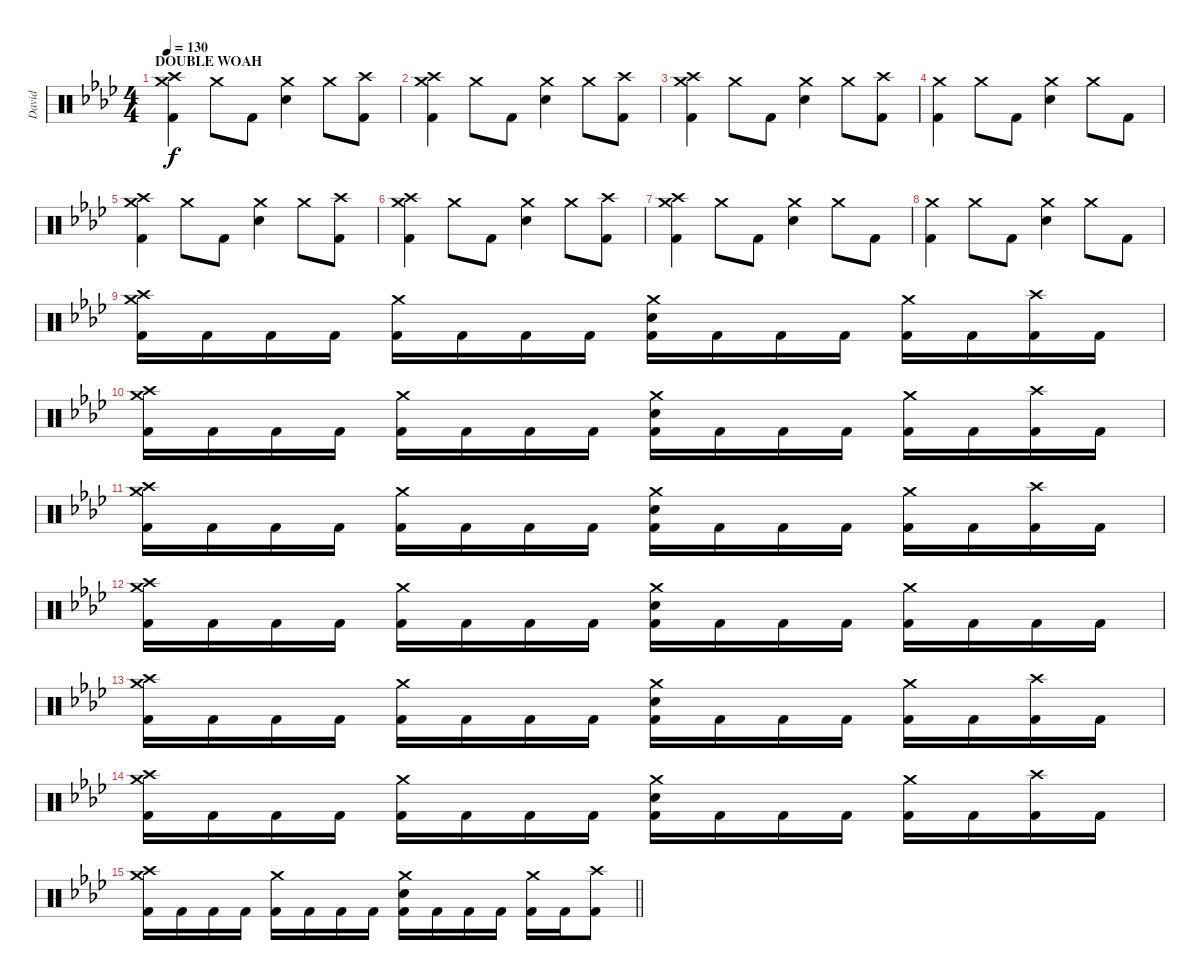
\track ("David" "David") {instrument percussion}
\staff {score}
\articulation defaults
\ts (4 4)
\section ("" "DOUBLE WOAH")
\tempo 130
\clef neutral
\ks ab
("Crash medium (hit)" "Crash high (hit)" "Kick (hit) 2").4{dy f} "Crash medium (hit)".8 "Kick (hit) 2".8 ("Crash medium (hit)" "Electric Snare (hit)").4 "Crash medium (hit)".8 ("Crash high (hit)" "Kick (hit) 2").8 |
("Crash medium (hit)" "Crash high (hit)" "Kick (hit) 2").4 "Crash medium (hit)".8 "Kick (hit) 2".8 ("Crash medium (hit)" "Electric Snare (hit)").4 "Crash medium (hit)".8 ("Crash high (hit)" "Kick (hit) 2").8 |
("Crash medium (hit)" "Crash high (hit)" "Kick (hit) 2").4 "Crash medium (hit)".8 "Kick (hit) 2".8 ("Crash medium (hit)" "Electric Snare (hit)").4 "Crash medium (hit)".8 ("Crash high (hit)" "Kick (hit) 2").8 |
("Crash medium (hit)" "Kick (hit) 2").4 "Crash medium (hit)".8 "Kick (hit) 2".8 ("Crash medium (hit)" "Electric Snare (hit)").4 "Crash medium (hit)".8 "Kick (hit) 2".8 |
("Crash medium (hit)" "Crash high (hit)" "Kick (hit) 2").4 "Crash medium (hit)".8 "Kick (hit) 2".8 ("Crash medium (hit)" "Electric Snare (hit)").4 "Crash medium (hit)".8 ("Crash high (hit)" "Kick (hit) 2").8 |
("Crash medium (hit)" "Crash high (hit)" "Kick (hit) 2").4 "Crash medium (hit)".8 "Kick (hit) 2".8 ("Crash medium (hit)" "Electric Snare (hit)").4 "Crash medium (hit)".8 ("Crash high (hit)" "Kick (hit) 2").8 |
("Crash medium (hit)" "Crash high (hit)" "Kick (hit) 2").4 "Crash medium (hit)".8 "Kick (hit) 2".8 ("Crash medium (hit)" "Electric Snare (hit)").4 "Crash medium (hit)".8 "Kick (hit) 2".8 |
("Crash medium (hit)" "Kick (hit) 2").4 "Crash medium (hit)".8 "Kick (hit) 2".8 ("Crash medium (hit)" "Electric Snare (hit)").4 "Crash medium (hit)".8 "Kick (hit) 2".8 |
("Crash medium (hit)" "Crash high (hit)" "Kick (hit) 2").16 "Kick (hit) 2".16 "Kick (hit) 2".16 "Kick (hit) 2".16 ("Crash medium (hit)" "Kick (hit) 2").16 "Kick (hit) 2".16 "Kick (hit) 2".16 "Kick (hit) 2".16 ("Crash medium (hit)" "Electric Snare (hit)" "Kick (hit) 2").16 "Kick (hit) 2".16 "Kick (hit) 2".16 "Kick (hit) 2".16 ("Crash medium (hit)" "Kick (hit) 2").16 "Kick (hit) 2".16 ("Crash high (hit)" "Kick (hit) 2").16 "Kick (hit) 2".16 |
("Crash medium (hit)" "Crash high (hit)" "Kick (hit) 2").16 "Kick (hit) 2".16 "Kick (hit) 2".16 "Kick (hit) 2".16 ("Crash medium (hit)" "Kick (hit) 2").16 "Kick (hit) 2".16 "Kick (hit) 2".16 "Kick (hit) 2".16 ("Crash medium (hit)" "Electric Snare (hit)" "Kick (hit) 2").16 "Kick (hit) 2".16 "Kick (hit) 2".16 "Kick (hit) 2".16 ("Crash medium (hit)" "Kick (hit) 2").16 "Kick (hit) 2".16 ("Crash high (hit)" "Kick (hit) 2").16 "Kick (hit) 2".16 |
("Crash medium (hit)" "Crash high (hit)" "Kick (hit) 2").16 "Kick (hit) 2".16 "Kick (hit) 2".16 "Kick (hit) 2".16 ("Crash medium (hit)" "Kick (hit) 2").16 "Kick (hit) 2".16 "Kick (hit) 2".16 "Kick (hit) 2".16 ("Crash medium (hit)" "Electric Snare (hit)" "Kick (hit) 2").16 "Kick (hit) 2".16 "Kick (hit) 2".16 "Kick (hit) 2".16 ("Crash medium (hit)" "Kick (hit) 2").16 "Kick (hit) 2".16 ("Crash high (hit)" "Kick (hit) 2").16 "Kick (hit) 2".16 |
("Crash medium (hit)" "Crash high (hit)" "Kick (hit) 2").16 "Kick (hit) 2".16 "Kick (hit) 2".16 "Kick (hit) 2".16 ("Crash medium (hit)" "Kick (hit) 2").16 "Kick (hit) 2".16 "Kick (hit) 2".16 "Kick (hit) 2".16 ("Crash medium (hit)" "Electric Snare (hit)" "Kick (hit) 2").16 "Kick (hit) 2".16 "Kick (hit) 2".16 "Kick (hit) 2".16 ("Crash medium (hit)" "Kick (hit) 2").16 "Kick (hit) 2".16 "Kick (hit) 2".16 "Kick (hit) 2".16 |
("Crash medium (hit)" "Crash high (hit)" "Kick (hit) 2").16 "Kick (hit) 2".16 "Kick (hit) 2".16 "Kick (hit) 2".16 ("Crash medium (hit)" "Kick (hit) 2").16 "Kick (hit) 2".16 "Kick (hit) 2".16 "Kick (hit) 2".16 ("Crash medium (hit)" "Electric Snare (hit)" "Kick (hit) 2").16 "Kick (hit) 2".16 "Kick (hit) 2".16 "Kick (hit) 2".16 ("Crash medium (hit)" "Kick (hit) 2").16 "Kick (hit) 2".16 ("Crash high (hit)" "Kick (hit) 2").16 "Kick (hit) 2".16 |
("Crash medium (hit)" "Crash high (hit)" "Kick (hit) 2").16 "Kick (hit) 2".16 "Kick (hit) 2".16 "Kick (hit) 2".16 ("Crash medium (hit)" "Kick (hit) 2").16 "Kick (hit) 2".16 "Kick (hit) 2".16 "Kick (hit) 2".16 ("Crash medium (hit)" "Electric Snare (hit)" "Kick (hit) 2").16 "Kick (hit) 2".16 "Kick (hit) 2".16 "Kick (hit) 2".16 ("Crash medium (hit)" "Kick (hit) 2").16 "Kick (hit) 2".16 ("Crash high (hit)" "Kick (hit) 2").16 "Kick (hit) 2".16 |
\barLineRight lightlight
("Crash medium (hit)" "Crash high (hit)" "Kick (hit) 2").16 "Kick (hit) 2".16 "Kick (hit) 2".16 "Kick (hit) 2".16 ("Crash medium (hit)" "Kick (hit) 2").16 "Kick (hit) 2".16 "Kick (hit) 2".16 "Kick (hit) 2".16 ("Crash medium (hit)" "Electric Snare (hit)" "Kick (hit) 2").16 "Kick (hit) 2".16 "Kick (hit) 2".16 "Kick (hit) 2".16 ("Crash medium (hit)" "Kick (hit) 2").16 "Kick (hit) 2".16 ("Crash high (hit)" "Kick (hit) 2").8
